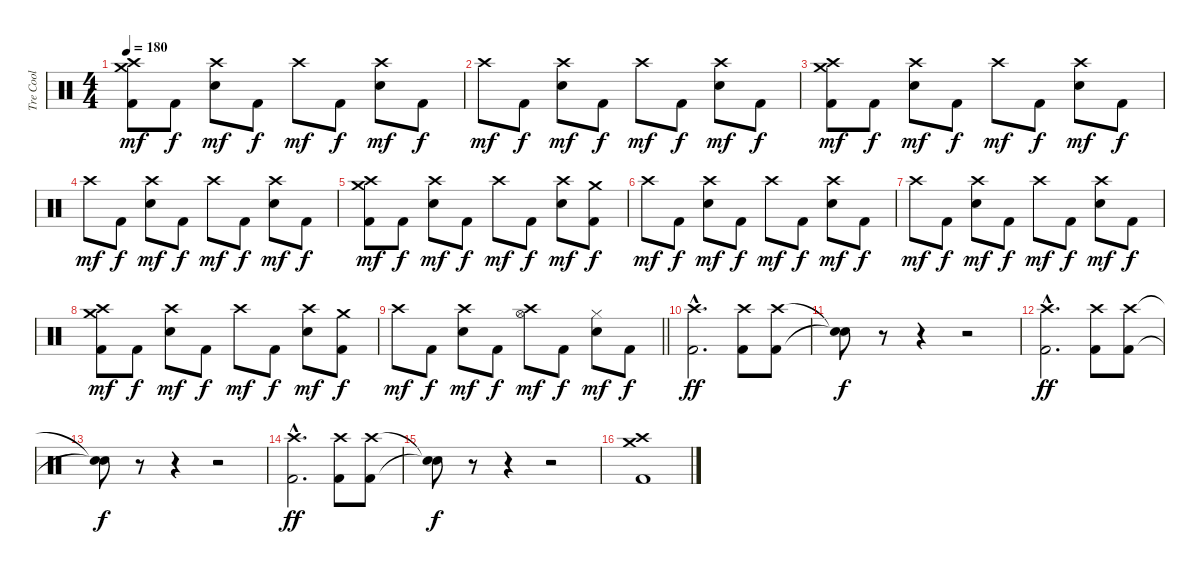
\track ("Tre Cool" "Tre Cool") {instrument percussion}
\staff {score}
\articulation defaults
\ts (4 4)
\tempo 180
\clef neutral
\ks c
("Crash medium (hit)" "Crash high (hit)" "Kick (hit) 2").8{dy mf} "Kick (hit) 2".8{dy f} ("Crash high (hit)" "Electric Snare (hit)").8{dy mf} "Kick (hit) 2".8{dy f} "Crash high (hit)".8{dy mf} "Kick (hit) 2".8{dy f} ("Crash high (hit)" "Electric Snare (hit)").8{dy mf} "Kick (hit) 2".8{dy f} |
"Crash high (hit)".8{dy mf} "Kick (hit) 2".8{dy f} ("Crash high (hit)" "Electric Snare (hit)").8{dy mf} "Kick (hit) 2".8{dy f} "Crash high (hit)".8{dy mf} "Kick (hit) 2".8{dy f} ("Crash high (hit)" "Electric Snare (hit)").8{dy mf} "Kick (hit) 2".8{dy f} |
("Crash medium (hit)" "Crash high (hit)" "Kick (hit) 2").8{dy mf} "Kick (hit) 2".8{dy f} ("Crash high (hit)" "Electric Snare (hit)").8{dy mf} "Kick (hit) 2".8{dy f} "Crash high (hit)".8{dy mf} "Kick (hit) 2".8{dy f} ("Crash high (hit)" "Electric Snare (hit)").8{dy mf} "Kick (hit) 2".8{dy f} |
"Crash high (hit)".8{dy mf} "Kick (hit) 2".8{dy f} ("Crash high (hit)" "Electric Snare (hit)").8{dy mf} "Kick (hit) 2".8{dy f} "Crash high (hit)".8{dy mf} "Kick (hit) 2".8{dy f} ("Crash high (hit)" "Electric Snare (hit)").8{dy mf} "Kick (hit) 2".8{dy f} |
("Crash medium (hit)" "Crash high (hit)" "Kick (hit) 2").8{dy mf} "Kick (hit) 2".8{dy f} ("Crash high (hit)" "Electric Snare (hit)").8{dy mf} "Kick (hit) 2".8{dy f} "Crash high (hit)".8{dy mf} "Kick (hit) 2".8{dy f} ("Crash high (hit)" "Electric Snare (hit)").8{dy mf} ("Crash medium (hit)" "Kick (hit) 2").8{dy f} |
"Crash high (hit)".8{dy mf} "Kick (hit) 2".8{dy f} ("Crash high (hit)" "Electric Snare (hit)").8{dy mf} "Kick (hit) 2".8{dy f} "Crash high (hit)".8{dy mf} "Kick (hit) 2".8{dy f} ("Crash high (hit)" "Electric Snare (hit)").8{dy mf} "Kick (hit) 2".8{dy f} |
"Crash high (hit)".8{dy mf} "Kick (hit) 2".8{dy f} ("Crash high (hit)" "Electric Snare (hit)").8{dy mf} "Kick (hit) 2".8{dy f} "Crash high (hit)".8{dy mf} "Kick (hit) 2".8{dy f} ("Crash high (hit)" "Electric Snare (hit)").8{dy mf} "Kick (hit) 2".8{dy f} |
("Crash medium (hit)" "Crash high (hit)" "Kick (hit) 2").8{dy mf} "Kick (hit) 2".8{dy f} ("Crash high (hit)" "Electric Snare (hit)").8{dy mf} "Kick (hit) 2".8{dy f} "Crash high (hit)".8{dy mf} "Kick (hit) 2".8{dy f} ("Crash high (hit)" "Electric Snare (hit)").8{dy mf} ("Crash medium (hit)" "Kick (hit) 2").8{dy f} |
\barLineRight lightlight "Crash high (hit)".8{dy mf} "Kick (hit) 2".8{dy f}
("Crash high (hit)" "Electric Snare (hit)").8{dy mf} "Kick (hit) 2".8{dy f} ("Crash high (hit)" "Hi-Hat (open)").8{dy mf} "Kick (hit) 2".8{dy f} ("Hi-Hat (closed)" "Electric Snare (hit)").8{dy mf} "Kick (hit) 2".8{dy f} |
("Crash high (hit)"{hac} "Kick (hit) 2"{hac}).2{d dy ff} ("Crash high (hit)" "Kick (hit) 2").8 ("Crash high (hit)" "Kick (hit) 2").8 |
("Snare (hit)"{t} "Snare (hit)"{t}).8{dy f} r.8{volume 0} r.4{volume 12} r.2 |
("Crash high (hit)"{hac} "Kick (hit) 2"{hac}).2{d dy ff} ("Crash high (hit)" "Kick (hit) 2").8 ("Crash high (hit)" "Kick (hit) 2").8 |
("Snare (hit)"{t} "Snare (hit)"{t}).8{dy f} r.8{volume 0} r.4{volume 12} r.2 |
("Crash high (hit)"{hac} "Kick (hit) 2"{hac}).2{d dy ff} ("Crash high (hit)" "Kick (hit) 2").8 ("Crash high (hit)" "Kick (hit) 2").8 |
("Snare (hit)"{t} "Snare (hit)"{t}).8{dy f} r.8{volume 0} r.4{volume 12} r.2 |
("Crash medium (hit)" "Crash high (hit)" "Kick (hit) 2").1
